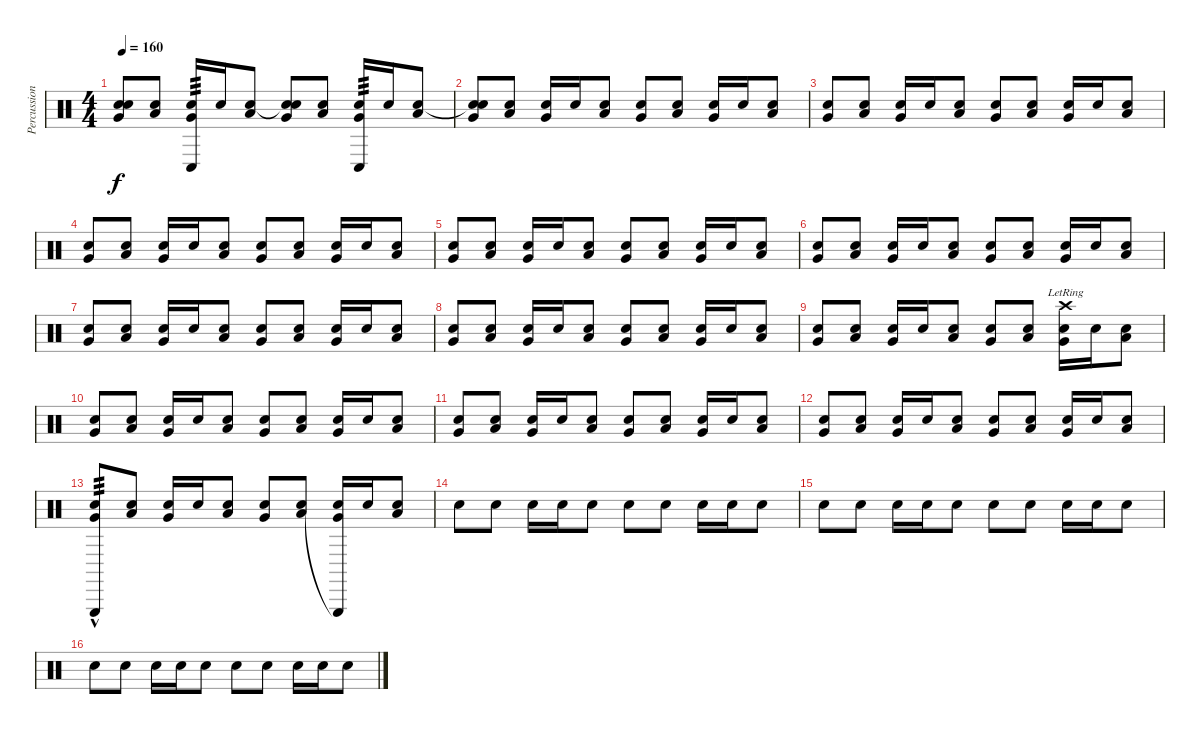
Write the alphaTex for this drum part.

\track ("Percussions" "Percussion") {instrument percussion}
\staff {score}
\articulation defaults
\ts (4 4)
\tempo 160
\clef neutral
\ks c
("Snare (hit)"{t} "Snare (hit) 2" "Very Low Tom (hit)").8{dy f} ("Snare (hit) 2" "Low Tom (hit)").8 ("Conga low (hit)" "Snare (hit) 2" "Very Low Tom (hit)").16{tp 3} "Snare (hit) 2".16 ("Snare (hit) 2" "Low Tom (hit)").8 ("Snare (hit)"{t} "Snare (hit) 2" "Very Low Tom (hit)").8 ("Snare (hit) 2" "Low Tom (hit)").8 ("Conga low (hit)" "Snare (hit) 2" "Very Low Tom (hit)").16{tp 3} "Snare (hit) 2".16 ("Snare (hit) 2" "Low Tom (hit)").8 |
("Snare (hit)"{t} "Snare (hit) 2" "Very Low Tom (hit)").8 ("Snare (hit) 2" "Low Tom (hit)").8 ("Snare (hit) 2" "Very Low Tom (hit)").16 "Snare (hit) 2".16 ("Snare (hit) 2" "Low Tom (hit)").8 ("Snare (hit) 2" "Very Low Tom (hit)").8 ("Snare (hit) 2" "Low Tom (hit)").8 ("Snare (hit) 2" "Very Low Tom (hit)").16 "Snare (hit) 2".16 ("Snare (hit) 2" "Low Tom (hit)").8 |
("Snare (hit) 2" "Very Low Tom (hit)").8 ("Snare (hit) 2" "Low Tom (hit)").8 ("Snare (hit) 2" "Very Low Tom (hit)").16 "Snare (hit) 2".16 ("Snare (hit) 2" "Low Tom (hit)").8 ("Snare (hit) 2" "Very Low Tom (hit)").8 ("Snare (hit) 2" "Low Tom (hit)").8 ("Snare (hit) 2" "Very Low Tom (hit)").16 "Snare (hit) 2".16 ("Snare (hit) 2" "Low Tom (hit)").8 |
("Snare (hit) 2" "Very Low Tom (hit)").8 ("Snare (hit) 2" "Low Tom (hit)").8 ("Snare (hit) 2" "Very Low Tom (hit)").16 "Snare (hit) 2".16 ("Snare (hit) 2" "Low Tom (hit)").8 ("Snare (hit) 2" "Very Low Tom (hit)").8 ("Snare (hit) 2" "Low Tom (hit)").8 ("Snare (hit) 2" "Very Low Tom (hit)").16 "Snare (hit) 2".16 ("Snare (hit) 2" "Low Tom (hit)").8 |
("Snare (hit) 2" "Very Low Tom (hit)").8 ("Snare (hit) 2" "Low Tom (hit)").8 ("Snare (hit) 2" "Very Low Tom (hit)").16 "Snare (hit) 2".16 ("Snare (hit) 2" "Low Tom (hit)").8 ("Snare (hit) 2" "Very Low Tom (hit)").8 ("Snare (hit) 2" "Low Tom (hit)").8 ("Snare (hit) 2" "Very Low Tom (hit)").16 "Snare (hit) 2".16 ("Snare (hit) 2" "Low Tom (hit)").8 |
("Snare (hit) 2" "Very Low Tom (hit)").8 ("Snare (hit) 2" "Low Tom (hit)").8 ("Snare (hit) 2" "Very Low Tom (hit)").16 "Snare (hit) 2".16 ("Snare (hit) 2" "Low Tom (hit)").8 ("Snare (hit) 2" "Very Low Tom (hit)").8 ("Snare (hit) 2" "Low Tom (hit)").8 ("Snare (hit) 2" "Very Low Tom (hit)").16 "Snare (hit) 2".16 ("Snare (hit) 2" "Low Tom (hit)").8 |
("Snare (hit) 2" "Very Low Tom (hit)").8 ("Snare (hit) 2" "Low Tom (hit)").8 ("Snare (hit) 2" "Very Low Tom (hit)").16 "Snare (hit) 2".16 ("Snare (hit) 2" "Low Tom (hit)").8 ("Snare (hit) 2" "Very Low Tom (hit)").8 ("Snare (hit) 2" "Low Tom (hit)").8 ("Snare (hit) 2" "Very Low Tom (hit)").16 "Snare (hit) 2".16 ("Snare (hit) 2" "Low Tom (hit)").8 |
("Snare (hit) 2" "Very Low Tom (hit)").8 ("Snare (hit) 2" "Low Tom (hit)").8 ("Snare (hit) 2" "Very Low Tom (hit)").16 "Snare (hit) 2".16 ("Snare (hit) 2" "Low Tom (hit)").8 ("Snare (hit) 2" "Very Low Tom (hit)").8 ("Snare (hit) 2" "Low Tom (hit)").8 ("Snare (hit) 2" "Very Low Tom (hit)").16 "Snare (hit) 2".16 ("Snare (hit) 2" "Low Tom (hit)").8 |
("Snare (hit) 2" "Very Low Tom (hit)").8 ("Snare (hit) 2" "Low Tom (hit)").8 ("Snare (hit) 2" "Very Low Tom (hit)").16 "Snare (hit) 2".16 ("Snare (hit) 2" "Low Tom (hit)").8 ("Snare (hit) 2" "Very Low Tom (hit)").8 ("Snare (hit) 2" "Low Tom (hit)").8 ("Crash high (hit)"{lr} "Snare (hit) 2" "Very Low Tom (hit)").16 "Snare (hit) 2".16 ("Snare (hit) 2" "Low Tom (hit)").8 |
("Snare (hit) 2" "Very Low Tom (hit)").8 ("Snare (hit) 2" "Low Tom (hit)").8 ("Snare (hit) 2" "Very Low Tom (hit)").16 "Snare (hit) 2".16 ("Snare (hit) 2" "Low Tom (hit)").8 ("Snare (hit) 2" "Very Low Tom (hit)").8 ("Snare (hit) 2" "Low Tom (hit)").8 ("Snare (hit) 2" "Very Low Tom (hit)").16 "Snare (hit) 2".16 ("Snare (hit) 2" "Low Tom (hit)").8 |
("Snare (hit) 2" "Very Low Tom (hit)").8 ("Snare (hit) 2" "Low Tom (hit)").8 ("Snare (hit) 2" "Very Low Tom (hit)").16 "Snare (hit) 2".16 ("Snare (hit) 2" "Low Tom (hit)").8 ("Snare (hit) 2" "Very Low Tom (hit)").8 ("Snare (hit) 2" "Low Tom (hit)").8 ("Snare (hit) 2" "Very Low Tom (hit)").16 "Snare (hit) 2".16 ("Snare (hit) 2" "Low Tom (hit)").8 |
("Snare (hit) 2" "Very Low Tom (hit)").8 ("Snare (hit) 2" "Low Tom (hit)").8 ("Snare (hit) 2" "Very Low Tom (hit)").16 "Snare (hit) 2".16 ("Snare (hit) 2" "Low Tom (hit)").8 ("Snare (hit) 2" "Very Low Tom (hit)").8 ("Snare (hit) 2" "Low Tom (hit)").8 ("Snare (hit) 2" "Very Low Tom (hit)").16 "Snare (hit) 2".16 ("Snare (hit) 2" "Low Tom (hit)").8 |
("Triangle (hit)"{hac} "Snare (hit) 2" "Very Low Tom (hit)").8{tp 3} ("Snare (hit) 2" "Low Tom (hit)").8 ("Snare (hit) 2" "Very Low Tom (hit)").16 "Snare (hit) 2".16 ("Snare (hit) 2" "Low Tom (hit)").8 ("Snare (hit) 2" "Very Low Tom (hit)").8 ("Snare (hit) 2" "Low Tom (hit)").8 ("Triangle (hit)"{t} "Snare (hit) 2" "Very Low Tom (hit)").16 "Snare (hit) 2".16 ("Snare (hit) 2" "Low Tom (hit)").8 |
"Snare (hit) 2".8 "Snare (hit) 2".8 "Snare (hit) 2".16 "Snare (hit) 2".16 "Snare (hit) 2".8 "Snare (hit) 2".8 "Snare (hit) 2".8 "Snare (hit) 2".16 "Snare (hit) 2".16 "Snare (hit) 2".8 |
"Snare (hit) 2".8 "Snare (hit) 2".8 "Snare (hit) 2".16 "Snare (hit) 2".16 "Snare (hit) 2".8 "Snare (hit) 2".8 "Snare (hit) 2".8 "Snare (hit) 2".16 "Snare (hit) 2".16 "Snare (hit) 2".8 |
"Snare (hit) 2".8 "Snare (hit) 2".8 "Snare (hit) 2".16 "Snare (hit) 2".16 "Snare (hit) 2".8 "Snare (hit) 2".8 "Snare (hit) 2".8 "Snare (hit) 2".16 "Snare (hit) 2".16 "Snare (hit) 2".8
